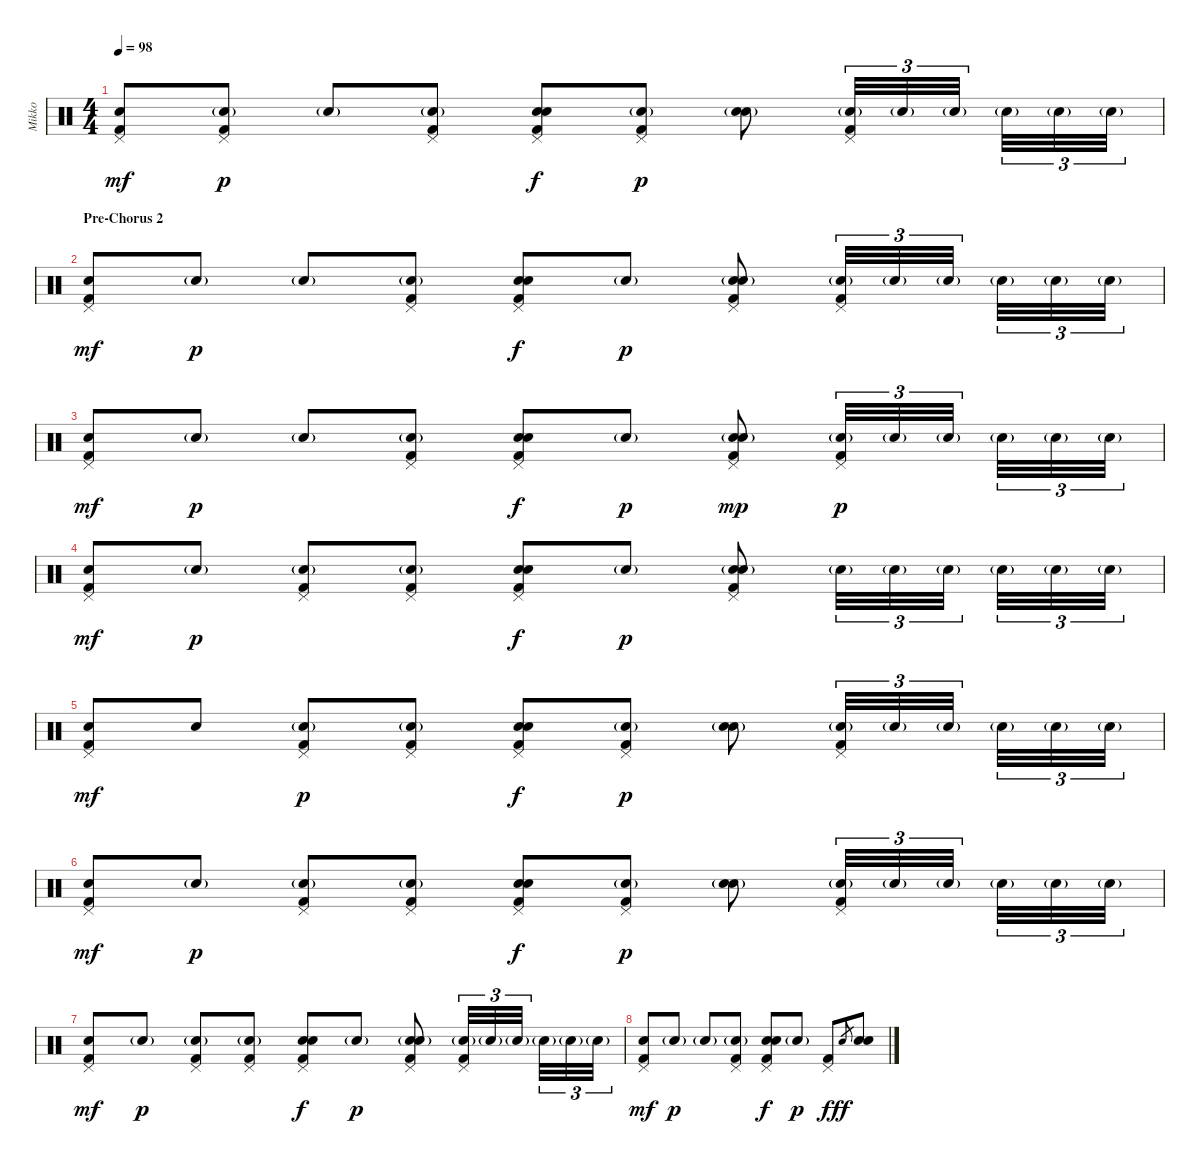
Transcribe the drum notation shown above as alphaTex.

\track ("Mikko" "Mikko") {instrument percussion}
\staff {score}
\articulation defaults
\ts (4 4)
\tempo 98
\clef neutral
\ks c
("Pedal Hi-Hat (hit)" "Electric Snare (hit)" "Kick (hit) 2").8{dy mf} ("Pedal Hi-Hat (hit)" "Electric Snare (hit)"{g} "Kick (hit) 2").8{dy p} "Electric Snare (hit)"{g}.8 ("Pedal Hi-Hat (hit)" "Electric Snare (hit)"{g} "Kick (hit) 2").8 ("Pedal Hi-Hat (hit)" "Electric Snare (hit)" "Electric Snare (hit)" "Kick (hit) 2").8{dy f} ("Pedal Hi-Hat (hit)" "Electric Snare (hit)"{g} "Kick (hit) 2").8{dy p} ("Electric Snare (hit)"{g} "Electric Snare (hit)"{g}).8 ("Pedal Hi-Hat (hit)" "Electric Snare (hit)"{g} "Kick (hit) 2").32{tu (3 2)} "Electric Snare (hit)"{g}.32{tu (3 2)} "Electric Snare (hit)"{g}.32{tu (3 2)} "Electric Snare (hit)"{g}.32{tu (3 2)} "Electric Snare (hit)"{g}.32{tu (3 2)} "Electric Snare (hit)"{g}.32{tu (3 2)} |
\section ("" "Pre-Chorus 2")
("Pedal Hi-Hat (hit)" "Electric Snare (hit)" "Kick (hit) 2").8{dy mf volume 13} "Electric Snare (hit)"{g}.8{dy p} "Electric Snare (hit)"{g}.8 ("Pedal Hi-Hat (hit)" "Electric Snare (hit)"{g} "Kick (hit) 2").8 ("Pedal Hi-Hat (hit)" "Electric Snare (hit)" "Electric Snare (hit)" "Kick (hit) 2").8{dy f} "Electric Snare (hit)"{g}.8{dy p} ("Pedal Hi-Hat (hit)" "Electric Snare (hit)"{g} "Electric Snare (hit)"{g} "Kick (hit) 2").8 ("Pedal Hi-Hat (hit)" "Electric Snare (hit)"{g} "Kick (hit) 2").32{tu (3 2)} "Electric Snare (hit)"{g}.32{tu (3 2)} "Electric Snare (hit)"{g}.32{tu (3 2)} "Electric Snare (hit)"{g}.32{tu (3 2)} "Electric Snare (hit)"{g}.32{tu (3 2)} "Electric Snare (hit)"{g}.32{tu (3 2)} |
("Pedal Hi-Hat (hit)" "Electric Snare (hit)" "Kick (hit) 2").8{dy mf} "Electric Snare (hit)"{g}.8{dy p} "Electric Snare (hit)"{g}.8 ("Pedal Hi-Hat (hit)" "Electric Snare (hit)"{g} "Kick (hit) 2").8 ("Pedal Hi-Hat (hit)" "Electric Snare (hit)" "Electric Snare (hit)" "Kick (hit) 2").8{dy f} "Electric Snare (hit)"{g}.8{dy p} ("Pedal Hi-Hat (hit)" "Electric Snare (hit)" "Electric Snare (hit)"{g} "Kick (hit) 2").8{dy mp} ("Pedal Hi-Hat (hit)" "Electric Snare (hit)"{g} "Kick (hit) 2").32{tu (3 2) dy p} "Electric Snare (hit)"{g}.32{tu (3 2)} "Electric Snare (hit)"{g}.32{tu (3 2)} "Electric Snare (hit)"{g}.32{tu (3 2)} "Electric Snare (hit)"{g}.32{tu (3 2)} "Electric Snare (hit)"{g}.32{tu (3 2)} |
("Pedal Hi-Hat (hit)" "Electric Snare (hit)" "Kick (hit) 2").8{dy mf} "Electric Snare (hit)"{g}.8{dy p} ("Pedal Hi-Hat (hit)" "Electric Snare (hit)"{g} "Kick (hit) 2").8 ("Pedal Hi-Hat (hit)" "Electric Snare (hit)"{g} "Kick (hit) 2").8 ("Pedal Hi-Hat (hit)" "Electric Snare (hit)" "Electric Snare (hit)" "Kick (hit) 2").8{dy f} "Electric Snare (hit)"{g}.8{dy p} ("Pedal Hi-Hat (hit)" "Electric Snare (hit)"{g} "Electric Snare (hit)"{g} "Kick (hit) 2").8 "Electric Snare (hit)"{g}.32{tu (3 2)} "Electric Snare (hit)"{g}.32{tu (3 2)} "Electric Snare (hit)"{g}.32{tu (3 2)} "Electric Snare (hit)"{g}.32{tu (3 2)} "Electric Snare (hit)"{g}.32{tu (3 2)} "Electric Snare (hit)"{g}.32{tu (3 2)} |
("Pedal Hi-Hat (hit)" "Electric Snare (hit)" "Kick (hit) 2").8{dy mf} "Electric Snare (hit)".8 ("Pedal Hi-Hat (hit)" "Electric Snare (hit)"{g} "Kick (hit) 2").8{dy p} ("Pedal Hi-Hat (hit)" "Electric Snare (hit)"{g} "Kick (hit) 2").8 ("Pedal Hi-Hat (hit)" "Electric Snare (hit)" "Electric Snare (hit)" "Kick (hit) 2").8{dy f} ("Pedal Hi-Hat (hit)" "Electric Snare (hit)"{g} "Kick (hit) 2").8{dy p} ("Electric Snare (hit)"{g} "Electric Snare (hit)"{g}).8 ("Pedal Hi-Hat (hit)" "Electric Snare (hit)"{g} "Kick (hit) 2").32{tu (3 2)} "Electric Snare (hit)"{g}.32{tu (3 2)} "Electric Snare (hit)"{g}.32{tu (3 2)} "Electric Snare (hit)"{g}.32{tu (3 2)} "Electric Snare (hit)"{g}.32{tu (3 2)} "Electric Snare (hit)"{g}.32{tu (3 2)} |
("Pedal Hi-Hat (hit)" "Electric Snare (hit)" "Kick (hit) 2").8{dy mf} "Electric Snare (hit)"{g}.8{dy p} ("Pedal Hi-Hat (hit)" "Electric Snare (hit)"{g} "Kick (hit) 2").8 ("Pedal Hi-Hat (hit)" "Electric Snare (hit)"{g} "Kick (hit) 2").8 ("Pedal Hi-Hat (hit)" "Electric Snare (hit)" "Electric Snare (hit)" "Kick (hit) 2").8{dy f} ("Pedal Hi-Hat (hit)" "Electric Snare (hit)"{g} "Kick (hit) 2").8{dy p} ("Electric Snare (hit)"{g} "Electric Snare (hit)"{g}).8 ("Pedal Hi-Hat (hit)" "Electric Snare (hit)"{g} "Kick (hit) 2").32{tu (3 2)} "Electric Snare (hit)"{g}.32{tu (3 2)} "Electric Snare (hit)"{g}.32{tu (3 2)} "Electric Snare (hit)"{g}.32{tu (3 2)} "Electric Snare (hit)"{g}.32{tu (3 2)} "Electric Snare (hit)"{g}.32{tu (3 2)} |
("Pedal Hi-Hat (hit)" "Electric Snare (hit)" "Kick (hit) 2").8{dy mf} "Electric Snare (hit)"{g}.8{dy p} ("Pedal Hi-Hat (hit)" "Electric Snare (hit)"{g} "Kick (hit) 2").8 ("Pedal Hi-Hat (hit)" "Electric Snare (hit)"{g} "Kick (hit) 2").8 ("Pedal Hi-Hat (hit)" "Electric Snare (hit)" "Electric Snare (hit)" "Kick (hit) 2").8{dy f} "Electric Snare (hit)"{g}.8{dy p} ("Pedal Hi-Hat (hit)" "Electric Snare (hit)"{g} "Electric Snare (hit)"{g} "Kick (hit) 2").8 ("Pedal Hi-Hat (hit)" "Electric Snare (hit)"{g} "Kick (hit) 2").32{tu (3 2)} "Electric Snare (hit)"{g}.32{tu (3 2)} "Electric Snare (hit)"{g}.32{tu (3 2)} "Electric Snare (hit)"{g}.32{tu (3 2)} "Electric Snare (hit)"{g}.32{tu (3 2)} "Electric Snare (hit)"{g}.32{tu (3 2)} |
("Pedal Hi-Hat (hit)" "Electric Snare (hit)" "Kick (hit) 2").8{dy mf} "Electric Snare (hit)"{g}.8{dy p} "Electric Snare (hit)"{g}.8 ("Pedal Hi-Hat (hit)" "Electric Snare (hit)"{g} "Kick (hit) 2").8 ("Pedal Hi-Hat (hit)" "Electric Snare (hit)" "Electric Snare (hit)" "Kick (hit) 2").8{dy f} "Electric Snare (hit)"{g}.8{dy p} ("Pedal Hi-Hat (hit)" "Kick (hit) 2").8{dy f} "Electric Snare (hit)".8{gr dy ff} ("Electric Snare (hit)" "Electric Snare (hit)").8{volume 16}
